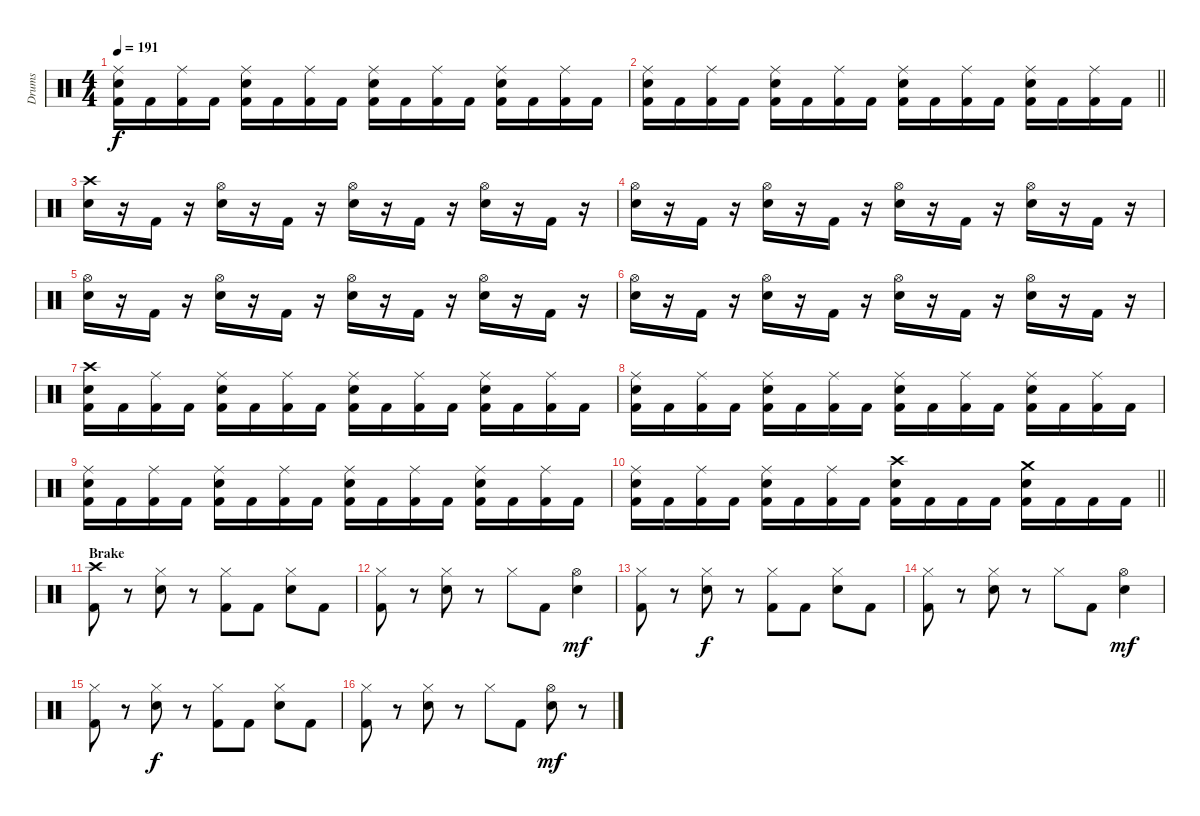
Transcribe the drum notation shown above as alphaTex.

\track ("Drums" "Drums") {instrument percussion}
\staff {score}
\articulation defaults
\ts (4 4)
\tempo 191
\clef neutral
\ks c
("Ride (middle)" "Snare (hit) 2" "Kick (hit) 2").16{dy f} "Kick (hit) 2".16 ("Ride (middle)" "Kick (hit) 2").16 "Kick (hit) 2".16 ("Ride (middle)" "Snare (hit) 2" "Kick (hit) 2").16 "Kick (hit) 2".16 ("Ride (middle)" "Kick (hit) 2").16 "Kick (hit) 2".16 ("Ride (middle)" "Snare (hit) 2" "Kick (hit) 2").16 "Kick (hit) 2".16 ("Ride (middle)" "Kick (hit) 2").16 "Kick (hit) 2".16 ("Ride (middle)" "Snare (hit) 2" "Kick (hit) 2").16 "Kick (hit) 2".16 ("Ride (middle)" "Kick (hit) 2").16 "Kick (hit) 2".16 |
\barLineRight lightlight
("Ride (middle)" "Snare (hit) 2" "Kick (hit) 2").16 "Kick (hit) 2".16 ("Ride (middle)" "Kick (hit) 2").16 "Kick (hit) 2".16 ("Ride (middle)" "Snare (hit) 2" "Kick (hit) 2").16 "Kick (hit) 2".16 ("Ride (middle)" "Kick (hit) 2").16 "Kick (hit) 2".16 ("Ride (middle)" "Snare (hit) 2" "Kick (hit) 2").16 "Kick (hit) 2".16 ("Ride (middle)" "Kick (hit) 2").16 "Kick (hit) 2".16 ("Ride (middle)" "Snare (hit) 2" "Kick (hit) 2").16 "Kick (hit) 2".16 ("Ride (middle)" "Kick (hit) 2").16 "Kick (hit) 2".16 |
\section ("" "")
("Crash high (hit)" "Snare (hit) 2").16 r.16 "Kick (hit) 2".16 r.16 ("Hi-Hat (open)" "Snare (hit) 2").16 r.16 "Kick (hit) 2".16 r.16 ("Hi-Hat (open)" "Snare (hit) 2").16 r.16 "Kick (hit) 2".16 r.16 ("Hi-Hat (open)" "Snare (hit) 2").16 r.16 "Kick (hit) 2".16 r.16 |
("Hi-Hat (open)" "Snare (hit) 2").16 r.16 "Kick (hit) 2".16 r.16 ("Hi-Hat (open)" "Snare (hit) 2").16 r.16 "Kick (hit) 2".16 r.16 ("Hi-Hat (open)" "Snare (hit) 2").16 r.16 "Kick (hit) 2".16 r.16 ("Hi-Hat (open)" "Snare (hit) 2").16 r.16 "Kick (hit) 2".16 r.16 |
("Hi-Hat (open)" "Snare (hit) 2").16 r.16 "Kick (hit) 2".16 r.16 ("Hi-Hat (open)" "Snare (hit) 2").16 r.16 "Kick (hit) 2".16 r.16 ("Hi-Hat (open)" "Snare (hit) 2").16 r.16 "Kick (hit) 2".16 r.16 ("Hi-Hat (open)" "Snare (hit) 2").16 r.16 "Kick (hit) 2".16 r.16 |
("Hi-Hat (open)" "Snare (hit) 2").16 r.16 "Kick (hit) 2".16 r.16 ("Hi-Hat (open)" "Snare (hit) 2").16 r.16 "Kick (hit) 2".16 r.16 ("Hi-Hat (open)" "Snare (hit) 2").16 r.16 "Kick (hit) 2".16 r.16 ("Hi-Hat (open)" "Snare (hit) 2").16 r.16 "Kick (hit) 2".16 r.16 |
("Crash high (hit)" "Snare (hit) 2" "Kick (hit) 2").16 "Kick (hit) 2".16 ("Ride (middle)" "Kick (hit) 2").16 "Kick (hit) 2".16 ("Ride (middle)" "Snare (hit) 2" "Kick (hit) 2").16 "Kick (hit) 2".16 ("Ride (middle)" "Kick (hit) 2").16 "Kick (hit) 2".16 ("Ride (middle)" "Snare (hit) 2" "Kick (hit) 2").16 "Kick (hit) 2".16 ("Ride (middle)" "Kick (hit) 2").16 "Kick (hit) 2".16 ("Ride (middle)" "Snare (hit) 2" "Kick (hit) 2").16 "Kick (hit) 2".16 ("Ride (middle)" "Kick (hit) 2").16 "Kick (hit) 2".16 |
("Ride (middle)" "Snare (hit) 2" "Kick (hit) 2").16 "Kick (hit) 2".16 ("Ride (middle)" "Kick (hit) 2").16 "Kick (hit) 2".16 ("Ride (middle)" "Snare (hit) 2" "Kick (hit) 2").16 "Kick (hit) 2".16 ("Ride (middle)" "Kick (hit) 2").16 "Kick (hit) 2".16 ("Ride (middle)" "Snare (hit) 2" "Kick (hit) 2").16 "Kick (hit) 2".16 ("Ride (middle)" "Kick (hit) 2").16 "Kick (hit) 2".16 ("Ride (middle)" "Snare (hit) 2" "Kick (hit) 2").16 "Kick (hit) 2".16 ("Ride (middle)" "Kick (hit) 2").16 "Kick (hit) 2".16 |
("Ride (middle)" "Snare (hit) 2" "Kick (hit) 2").16 "Kick (hit) 2".16 ("Ride (middle)" "Kick (hit) 2").16 "Kick (hit) 2".16 ("Ride (middle)" "Snare (hit) 2" "Kick (hit) 2").16 "Kick (hit) 2".16 ("Ride (middle)" "Kick (hit) 2").16 "Kick (hit) 2".16 ("Ride (middle)" "Snare (hit) 2" "Kick (hit) 2").16 "Kick (hit) 2".16 ("Ride (middle)" "Kick (hit) 2").16 "Kick (hit) 2".16 ("Ride (middle)" "Snare (hit) 2" "Kick (hit) 2").16 "Kick (hit) 2".16 ("Ride (middle)" "Kick (hit) 2").16 "Kick (hit) 2".16 |
\barLineRight lightlight
("Ride (middle)" "Snare (hit) 2" "Kick (hit) 2").16 "Kick (hit) 2".16 ("Ride (middle)" "Kick (hit) 2").16 "Kick (hit) 2".16 ("Ride (middle)" "Snare (hit) 2" "Kick (hit) 2").16 "Kick (hit) 2".16 ("Ride (middle)" "Kick (hit) 2").16 "Kick (hit) 2".16 ("Crash high (hit)" "Snare (hit) 2" "Kick (hit) 2").16 "Kick (hit) 2".16 "Kick (hit) 2".16 "Kick (hit) 2".16 ("Crash medium (hit)" "Snare (hit) 2" "Kick (hit) 2").16 "Kick (hit) 2".16 "Kick (hit) 2".16 "Kick (hit) 2".16 |
\section ("" "Brake")
("Crash high (hit)" "Kick (hit) 2").8 r.8 ("Hi-Hat (closed)" "Snare (hit) 2").8 r.8 ("Hi-Hat (closed)" "Kick (hit) 2").8 "Kick (hit) 2".8 ("Hi-Hat (closed)" "Snare (hit) 2").8 "Kick (hit) 2".8 |
("Hi-Hat (closed)" "Kick (hit) 2").8 r.8 ("Hi-Hat (closed)" "Snare (hit) 2").8 r.8 "Hi-Hat (closed)".8 "Kick (hit) 2".8 ("Hi-Hat (open)" "Snare (hit) 2").4{dy mf} |
("Hi-Hat (closed)" "Kick (hit) 2").8 r.8 ("Hi-Hat (closed)" "Snare (hit) 2").8{dy f} r.8 ("Hi-Hat (closed)" "Kick (hit) 2").8 "Kick (hit) 2".8 ("Hi-Hat (closed)" "Snare (hit) 2").8 "Kick (hit) 2".8 |
("Hi-Hat (closed)" "Kick (hit) 2").8 r.8 ("Hi-Hat (closed)" "Snare (hit) 2").8 r.8 "Hi-Hat (closed)".8 "Kick (hit) 2".8 ("Hi-Hat (open)" "Snare (hit) 2").4{dy mf} |
("Hi-Hat (closed)" "Kick (hit) 2").8 r.8 ("Hi-Hat (closed)" "Snare (hit) 2").8{dy f} r.8 ("Hi-Hat (closed)" "Kick (hit) 2").8 "Kick (hit) 2".8 ("Hi-Hat (closed)" "Snare (hit) 2").8 "Kick (hit) 2".8 |
("Hi-Hat (closed)" "Kick (hit) 2").8 r.8 ("Hi-Hat (closed)" "Snare (hit) 2").8 r.8 "Hi-Hat (closed)".8 "Kick (hit) 2".8 ("Hi-Hat (open)" "Snare (hit) 2").8{dy mf} r.8
